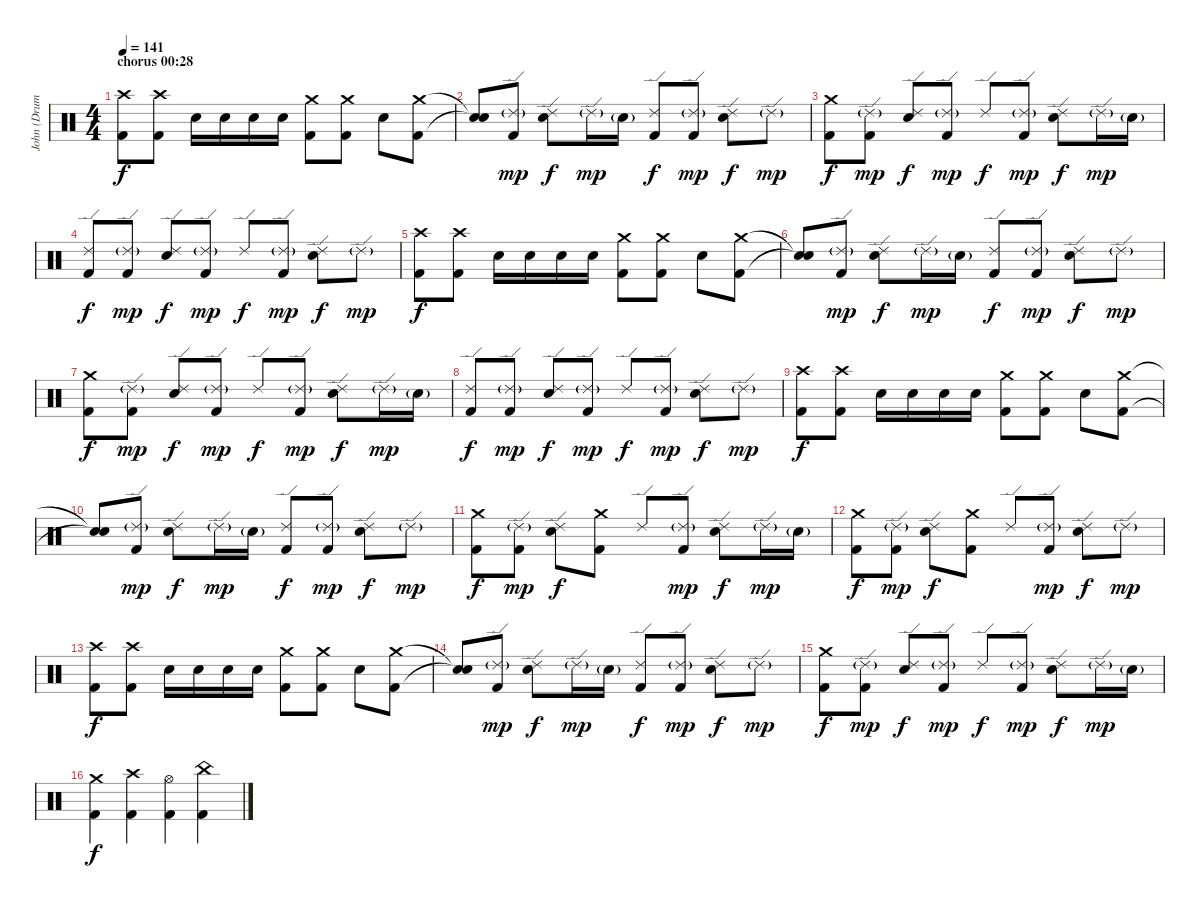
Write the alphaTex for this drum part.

\track ("John (Drums)" "John (Drum") {instrument percussion}
\staff {score}
\articulation defaults
\ts (4 4)
\section ("" "chorus 00:28")
\tempo 141
\clef neutral
\ks c
("Crash high (hit)" "Kick (hit) 2").8{dy f volume 13} ("Crash high (hit)" "Kick (hit) 2").8 "Snare (hit) 2".16 "Snare (hit) 2".16 "Snare (hit) 2".16 "Snare (hit) 2".16 ("Crash medium (hit)" "Kick (hit) 2").8 ("Crash medium (hit)" "Kick (hit) 2").8 "Snare (hit) 2".8 ("Crash medium (hit)" "Kick (hit) 2").8 |
("Snare (hit)"{t} "Snare (hit)"{t}).8 ("Ride (edge) 2"{g} "Kick (hit) 2").8{dy mp} ("Ride (edge) 2" "Snare (hit) 2").8{dy f} "Ride (edge) 2"{g}.16{dy mp} "Snare (hit) 2"{g}.16 ("Ride (edge) 2" "Kick (hit) 2").8{dy f} ("Ride (edge) 2"{g} "Kick (hit) 2").8{dy mp} ("Ride (edge) 2" "Snare (hit) 2").8{dy f} "Ride (edge) 2"{g}.8{dy mp} |
("Crash medium (hit)" "Kick (hit) 2").8{dy f} ("Ride (edge) 2"{g} "Kick (hit) 2").8{dy mp} ("Ride (edge) 2" "Snare (hit) 2").8{dy f} ("Ride (edge) 2"{g} "Kick (hit) 2").8{dy mp} "Ride (edge) 2".8{dy f} ("Ride (edge) 2"{g} "Kick (hit) 2").8{dy mp} ("Ride (edge) 2" "Snare (hit) 2").8{dy f} "Ride (edge) 2"{g}.16{dy mp} "Snare (hit) 2"{g}.16 |
("Ride (edge) 2" "Kick (hit) 2").8{dy f} ("Ride (edge) 2"{g} "Kick (hit) 2").8{dy mp} ("Ride (edge) 2" "Snare (hit) 2").8{dy f} ("Ride (edge) 2"{g} "Kick (hit) 2").8{dy mp} "Ride (edge) 2".8{dy f} ("Ride (edge) 2"{g} "Kick (hit) 2").8{dy mp} ("Ride (edge) 2" "Snare (hit) 2").8{dy f} "Ride (edge) 2"{g}.8{dy mp} |
("Crash high (hit)" "Kick (hit) 2").8{dy f} ("Crash high (hit)" "Kick (hit) 2").8 "Snare (hit) 2".16 "Snare (hit) 2".16 "Snare (hit) 2".16 "Snare (hit) 2".16 ("Crash medium (hit)" "Kick (hit) 2").8 ("Crash medium (hit)" "Kick (hit) 2").8 "Snare (hit) 2".8 ("Crash medium (hit)" "Kick (hit) 2").8 |
("Snare (hit)"{t} "Snare (hit)"{t}).8 ("Ride (edge) 2"{g} "Kick (hit) 2").8{dy mp} ("Ride (edge) 2" "Snare (hit) 2").8{dy f} "Ride (edge) 2"{g}.16{dy mp} "Snare (hit) 2"{g}.16 ("Ride (edge) 2" "Kick (hit) 2").8{dy f} ("Ride (edge) 2"{g} "Kick (hit) 2").8{dy mp} ("Ride (edge) 2" "Snare (hit) 2").8{dy f} "Ride (edge) 2"{g}.8{dy mp} |
("Crash medium (hit)" "Kick (hit) 2").8{dy f} ("Ride (edge) 2"{g} "Kick (hit) 2").8{dy mp} ("Ride (edge) 2" "Snare (hit) 2").8{dy f} ("Ride (edge) 2"{g} "Kick (hit) 2").8{dy mp} "Ride (edge) 2".8{dy f} ("Ride (edge) 2"{g} "Kick (hit) 2").8{dy mp} ("Ride (edge) 2" "Snare (hit) 2").8{dy f} "Ride (edge) 2"{g}.16{dy mp} "Snare (hit) 2"{g}.16 |
("Ride (edge) 2" "Kick (hit) 2").8{dy f} ("Ride (edge) 2"{g} "Kick (hit) 2").8{dy mp} ("Ride (edge) 2" "Snare (hit) 2").8{dy f} ("Ride (edge) 2"{g} "Kick (hit) 2").8{dy mp} "Ride (edge) 2".8{dy f} ("Ride (edge) 2"{g} "Kick (hit) 2").8{dy mp} ("Ride (edge) 2" "Snare (hit) 2").8{dy f} "Ride (edge) 2"{g}.8{dy mp} |
("Crash high (hit)" "Kick (hit) 2").8{dy f} ("Crash high (hit)" "Kick (hit) 2").8 "Snare (hit) 2".16 "Snare (hit) 2".16 "Snare (hit) 2".16 "Snare (hit) 2".16 ("Crash medium (hit)" "Kick (hit) 2").8 ("Crash medium (hit)" "Kick (hit) 2").8 "Snare (hit) 2".8 ("Crash medium (hit)" "Kick (hit) 2").8 |
("Snare (hit)"{t} "Snare (hit)"{t}).8 ("Ride (edge) 2"{g} "Kick (hit) 2").8{dy mp} ("Ride (edge) 2" "Snare (hit) 2").8{dy f} "Ride (edge) 2"{g}.16{dy mp} "Snare (hit) 2"{g}.16 ("Ride (edge) 2" "Kick (hit) 2").8{dy f} ("Ride (edge) 2"{g} "Kick (hit) 2").8{dy mp} ("Ride (edge) 2" "Snare (hit) 2").8{dy f} "Ride (edge) 2"{g}.8{dy mp} |
("Crash medium (hit)" "Kick (hit) 2").8{dy f} ("Ride (edge) 2"{g} "Kick (hit) 2").8{dy mp} ("Ride (edge) 2" "Snare (hit) 2").8{dy f} ("Crash medium (hit)" "Kick (hit) 2").8 "Ride (edge) 2".8 ("Ride (edge) 2"{g} "Kick (hit) 2").8{dy mp} ("Ride (edge) 2" "Snare (hit) 2").8{dy f} "Ride (edge) 2"{g}.16{dy mp} "Snare (hit) 2"{g}.16 |
("Crash medium (hit)" "Kick (hit) 2").8{dy f} ("Ride (edge) 2"{g} "Kick (hit) 2").8{dy mp} ("Ride (edge) 2" "Snare (hit) 2").8{dy f} ("Crash medium (hit)" "Kick (hit) 2").8 "Ride (edge) 2".8 ("Ride (edge) 2"{g} "Kick (hit) 2").8{dy mp} ("Ride (edge) 2" "Snare (hit) 2").8{dy f} "Ride (edge) 2"{g}.8{dy mp} |
("Crash high (hit)" "Kick (hit) 2").8{dy f} ("Crash high (hit)" "Kick (hit) 2").8 "Snare (hit) 2".16 "Snare (hit) 2".16 "Snare (hit) 2".16 "Snare (hit) 2".16 ("Crash medium (hit)" "Kick (hit) 2").8 ("Crash medium (hit)" "Kick (hit) 2").8 "Snare (hit) 2".8 ("Crash medium (hit)" "Kick (hit) 2").8 |
("Snare (hit)"{t} "Snare (hit)"{t}).8 ("Ride (edge) 2"{g} "Kick (hit) 2").8{dy mp} ("Ride (edge) 2" "Snare (hit) 2").8{dy f} "Ride (edge) 2"{g}.16{dy mp} "Snare (hit) 2"{g}.16 ("Ride (edge) 2" "Kick (hit) 2").8{dy f} ("Ride (edge) 2"{g} "Kick (hit) 2").8{dy mp} ("Ride (edge) 2" "Snare (hit) 2").8{dy f} "Ride (edge) 2"{g}.8{dy mp} |
("Crash medium (hit)" "Kick (hit) 2").8{dy f} ("Ride (edge) 2"{g} "Kick (hit) 2").8{dy mp} ("Ride (edge) 2" "Snare (hit) 2").8{dy f} ("Ride (edge) 2"{g} "Kick (hit) 2").8{dy mp} "Ride (edge) 2".8{dy f} ("Ride (edge) 2"{g} "Kick (hit) 2").8{dy mp} ("Ride (edge) 2" "Snare (hit) 2").8{dy f} "Ride (edge) 2"{g}.16{dy mp} "Snare (hit) 2"{g}.16 |
("Crash medium (hit)" "Kick (hit) 2").4{dy f} ("Crash high (hit)" "Kick (hit) 2").4 ("Hi-Hat (open)" "Kick (hit) 2").4 ("China (hit)" "Kick (hit) 2").4
